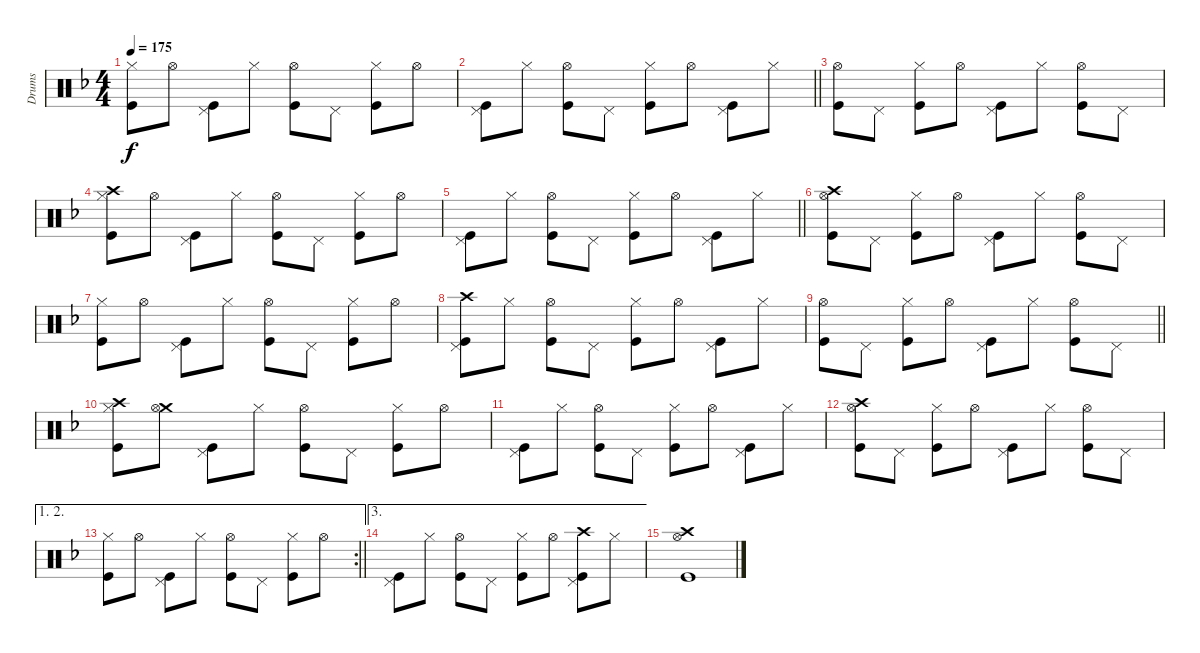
\track ("Drums" "Drums") {instrument percussion}
\staff
\articulation defaults
\ts (4 4)
\tempo 175
\clef neutral
\ks f
("Hi-Hat (closed)" "Kick (hit)").8{dy f} "Hi-Hat (open)".8 ("Pedal Hi-Hat (hit)" "Kick (hit)").8 "Hi-Hat (closed)".8 ("Hi-Hat (open)" "Kick (hit)").8 "Pedal Hi-Hat (hit)".8 ("Hi-Hat (closed)" "Kick (hit)").8 "Hi-Hat (open)".8 |
\barLineRight lightlight
("Pedal Hi-Hat (hit)" "Kick (hit)").8 "Hi-Hat (closed)".8 ("Hi-Hat (open)" "Kick (hit)").8 "Pedal Hi-Hat (hit)".8 ("Hi-Hat (closed)" "Kick (hit)").8 "Hi-Hat (open)".8 ("Pedal Hi-Hat (hit)" "Kick (hit)").8 "Hi-Hat (closed)".8 |
("Hi-Hat (open)" "Kick (hit)").8 "Pedal Hi-Hat (hit)".8 ("Hi-Hat (closed)" "Kick (hit)").8 "Hi-Hat (open)".8 ("Pedal Hi-Hat (hit)" "Kick (hit)").8 "Hi-Hat (closed)".8 ("Hi-Hat (open)" "Kick (hit)").8 "Pedal Hi-Hat (hit)".8 |
("Crash high (hit)" "Hi-Hat (closed)" "Kick (hit)").8 "Hi-Hat (open)".8 ("Pedal Hi-Hat (hit)" "Kick (hit)").8 "Hi-Hat (closed)".8 ("Hi-Hat (open)" "Kick (hit)").8 "Pedal Hi-Hat (hit)".8 ("Hi-Hat (closed)" "Kick (hit)").8 "Hi-Hat (open)".8 |
\barLineRight lightlight
("Pedal Hi-Hat (hit)" "Kick (hit)").8 "Hi-Hat (closed)".8 ("Hi-Hat (open)" "Kick (hit)").8 "Pedal Hi-Hat (hit)".8 ("Hi-Hat (closed)" "Kick (hit)").8 "Hi-Hat (open)".8 ("Pedal Hi-Hat (hit)" "Kick (hit)").8 "Hi-Hat (closed)".8 |
("Crash high (hit)" "Hi-Hat (open)" "Kick (hit)").8 "Pedal Hi-Hat (hit)".8 ("Hi-Hat (closed)" "Kick (hit)").8 "Hi-Hat (open)".8 ("Pedal Hi-Hat (hit)" "Kick (hit)").8 "Hi-Hat (closed)".8 ("Hi-Hat (open)" "Kick (hit)").8 "Pedal Hi-Hat (hit)".8 |
("Hi-Hat (closed)" "Kick (hit)").8 "Hi-Hat (open)".8 ("Pedal Hi-Hat (hit)" "Kick (hit)").8 "Hi-Hat (closed)".8 ("Hi-Hat (open)" "Kick (hit)").8 "Pedal Hi-Hat (hit)".8 ("Hi-Hat (closed)" "Kick (hit)").8 "Hi-Hat (open)".8 |
("Crash high (hit)" "Pedal Hi-Hat (hit)" "Kick (hit)").8 "Hi-Hat (closed)".8 ("Hi-Hat (open)" "Kick (hit)").8 "Pedal Hi-Hat (hit)".8 ("Hi-Hat (closed)" "Kick (hit)").8 "Hi-Hat (open)".8 ("Pedal Hi-Hat (hit)" "Kick (hit)").8 "Hi-Hat (closed)".8 |
\barLineRight lightlight
("Hi-Hat (open)" "Kick (hit)").8 "Pedal Hi-Hat (hit)".8 ("Hi-Hat (closed)" "Kick (hit)").8 "Hi-Hat (open)".8 ("Pedal Hi-Hat (hit)" "Kick (hit)").8 "Hi-Hat (closed)".8 ("Hi-Hat (open)" "Kick (hit)").8 "Pedal Hi-Hat (hit)".8 |
("Crash high (hit)" "Hi-Hat (closed)" "Kick (hit)").8 ("Crash medium (hit)" "Hi-Hat (open)").8 ("Pedal Hi-Hat (hit)" "Kick (hit)").8 "Hi-Hat (closed)".8 ("Hi-Hat (open)" "Kick (hit)").8 "Pedal Hi-Hat (hit)".8 ("Hi-Hat (closed)" "Kick (hit)").8 "Hi-Hat (open)".8 |
("Pedal Hi-Hat (hit)" "Kick (hit)").8 "Hi-Hat (closed)".8 ("Hi-Hat (open)" "Kick (hit)").8 "Pedal Hi-Hat (hit)".8 ("Hi-Hat (closed)" "Kick (hit)").8 "Hi-Hat (open)".8 ("Pedal Hi-Hat (hit)" "Kick (hit)").8 "Hi-Hat (closed)".8 |
("Crash high (hit)" "Hi-Hat (open)" "Kick (hit)").8 "Pedal Hi-Hat (hit)".8 ("Hi-Hat (closed)" "Kick (hit)").8 "Hi-Hat (open)".8 ("Pedal Hi-Hat (hit)" "Kick (hit)").8 "Hi-Hat (closed)".8 ("Hi-Hat (open)" "Kick (hit)").8 "Pedal Hi-Hat (hit)".8 |
\ae (1 2)
\rc 2
\barLineRight lightlight
("Hi-Hat (closed)" "Kick (hit)").8 "Hi-Hat (open)".8 ("Pedal Hi-Hat (hit)" "Kick (hit)").8 "Hi-Hat (closed)".8 ("Hi-Hat (open)" "Kick (hit)").8 "Pedal Hi-Hat (hit)".8 ("Hi-Hat (closed)" "Kick (hit)").8 "Hi-Hat (open)".8 |
\ae 3
("Pedal Hi-Hat (hit)" "Kick (hit)").8 "Hi-Hat (closed)".8 ("Hi-Hat (open)" "Kick (hit)").8 "Pedal Hi-Hat (hit)".8 ("Hi-Hat (closed)" "Kick (hit)").8 "Hi-Hat (open)".8 ("Crash high (hit)" "Pedal Hi-Hat (hit)" "Kick (hit)").8 "Hi-Hat (closed)".8 |
("Crash high (hit)" "Hi-Hat (open)" "Kick (hit)").1
